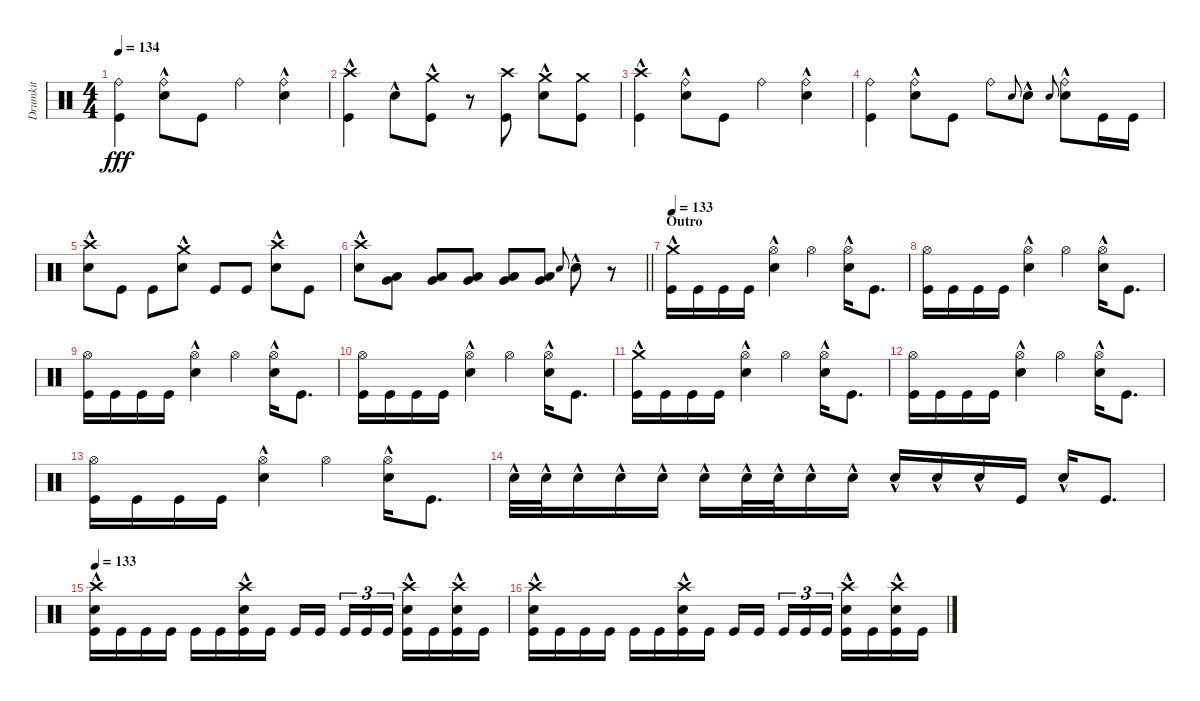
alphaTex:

\track ("Drumkit" "Drumkit") {instrument percussion}
\staff {score}
\articulation defaults
\ts (4 4)
\tempo 134
\clef neutral
\ks aminor
("Kick (hit)" "Ride (bell)").4{dy fff} ("Snare (hit) 2"{hac} "Ride (bell)").8 "Kick (hit)".8 "Ride (bell)".4 ("Snare (hit) 2"{hac} "Ride (bell)").4 |
("Kick (hit)" "Crash high (hit)"{hac}).4 "Snare (hit) 2"{hac}.8 ("Kick (hit)" "Crash medium (hit)"{hac}).8 r.8 ("Kick (hit)" "Crash high (hit)").8 ("Snare (hit) 2"{hac} "Crash medium (hit)").8 ("Kick (hit)" "Crash medium (hit)").8 |
("Kick (hit)" "Crash high (hit)"{hac}).4 ("Snare (hit) 2"{hac} "Ride (bell)").8 "Kick (hit)".8 "Ride (bell)".4 ("Snare (hit) 2"{hac} "Ride (bell)").4 |
("Kick (hit)" "Ride (bell)").4 ("Snare (hit) 2"{hac} "Ride (bell)").8 "Kick (hit)".8 "Ride (bell)".8 "Snare (hit)".8{gr onbeat} "Snare (hit) 2"{hac}.8 "Snare (hit)".8{gr onbeat} ("Snare (hit) 2"{hac} "Ride (bell)").8 "Kick (hit)".16 "Kick (hit)".16 |
("Snare (hit) 2"{hac} "Crash high (hit)"{hac}).8 "Kick (hit)".8 "Kick (hit)".8 ("Snare (hit) 2"{hac} "Crash medium (hit)"{hac}).8 "Kick (hit)".8 "Kick (hit)".8 ("Snare (hit) 2"{hac} "Crash high (hit)"{hac}).8 "Kick (hit)".8 |
\barLineRight lightlight
("Snare (hit) 2"{hac} "Crash high (hit)"{hac}).8 ("Low Tom (hit)" "Very Low Tom (hit)").8 ("Low Tom (hit)" "Very Low Tom (hit)").8 ("Low Tom (hit)" "Very Low Tom (hit)").8 ("Very Low Tom (hit)" "Low Floor Tom (hit)").8 ("Very Low Tom (hit)" "Low Floor Tom (hit)").8 "Snare (hit)".8{gr onbeat} "Snare (hit) 2"{hac}.8 r.8 |
\section ("" "Outro")
\tempo 133
("Kick (hit)" "Crash medium (hit)"{hac}).16 "Kick (hit)".16 "Kick (hit)".16 "Kick (hit)".16 ("Snare (hit) 2"{hac} "Hi-Hat (open)").4 "Hi-Hat (open)".4 ("Snare (hit) 2"{hac} "Hi-Hat (open)").16 "Kick (hit)".8{d} |
("Kick (hit)" "Hi-Hat (open)").16 "Kick (hit)".16 "Kick (hit)".16 "Kick (hit)".16 ("Snare (hit) 2"{hac} "Hi-Hat (open)").4 "Hi-Hat (open)".4 ("Snare (hit) 2"{hac} "Hi-Hat (open)").16 "Kick (hit)".8{d} |
("Kick (hit)" "Hi-Hat (open)").16 "Kick (hit)".16 "Kick (hit)".16 "Kick (hit)".16 ("Snare (hit) 2"{hac} "Hi-Hat (open)").4 "Hi-Hat (open)".4 ("Snare (hit) 2"{hac} "Hi-Hat (open)").16 "Kick (hit)".8{d} |
("Kick (hit)" "Hi-Hat (open)").16 "Kick (hit)".16 "Kick (hit)".16 "Kick (hit)".16 ("Snare (hit) 2"{hac} "Hi-Hat (open)").4 "Hi-Hat (open)".4 ("Snare (hit) 2"{hac} "Hi-Hat (open)").16 "Kick (hit)".8{d} |
("Kick (hit)" "Crash medium (hit)"{hac}).16 "Kick (hit)".16 "Kick (hit)".16 "Kick (hit)".16 ("Snare (hit) 2"{hac} "Hi-Hat (open)").4 "Hi-Hat (open)".4 ("Snare (hit) 2"{hac} "Hi-Hat (open)").16 "Kick (hit)".8{d} |
("Kick (hit)" "Hi-Hat (open)").16 "Kick (hit)".16 "Kick (hit)".16 "Kick (hit)".16 ("Snare (hit) 2"{hac} "Hi-Hat (open)").4 "Hi-Hat (open)".4 ("Snare (hit) 2"{hac} "Hi-Hat (open)").16 "Kick (hit)".8{d} |
("Kick (hit)" "Hi-Hat (open)").16 "Kick (hit)".16 "Kick (hit)".16 "Kick (hit)".16 ("Snare (hit) 2"{hac} "Hi-Hat (open)").4 "Hi-Hat (open)".4 ("Snare (hit) 2"{hac} "Hi-Hat (open)").16 "Kick (hit)".8{d} |
"Snare (hit) 2"{hac}.32 "Snare (hit) 2"{hac}.32 "Snare (hit) 2"{hac}.16 "Snare (hit) 2"{hac}.16 "Snare (hit) 2"{hac}.16 "Snare (hit) 2"{hac}.16 "Snare (hit) 2"{hac}.32 "Snare (hit) 2"{hac}.32 "Snare (hit) 2"{hac}.16 "Snare (hit) 2"{hac}.16 "Snare (hit) 2"{hac}.16 "Snare (hit) 2"{hac}.16 "Snare (hit) 2"{hac}.16 "Kick (hit)".16 "Snare (hit) 2"{hac}.16 "Kick (hit)".8{d} |
\tempo 133
("Kick (hit)" "Snare (hit) 2"{hac} "Crash high (hit)"{hac}).16 "Kick (hit)".16 "Kick (hit)".16 "Kick (hit)".16 "Kick (hit)".16 "Kick (hit)".16 ("Kick (hit)" "Snare (hit) 2"{hac} "Crash high (hit)").16 "Kick (hit)".16 "Kick (hit)".16 "Kick (hit)".16{beam splitsecondary} "Kick (hit)".16{tu (3 2)} "Kick (hit)".16{tu (3 2)} "Kick (hit)".16{tu (3 2)} ("Kick (hit)" "Snare (hit) 2"{hac} "Crash high (hit)").16 "Kick (hit)".16 ("Kick (hit)" "Snare (hit) 2"{hac} "Crash high (hit)").16 "Kick (hit)".16 |
("Kick (hit)" "Snare (hit) 2"{hac} "Crash high (hit)").16 "Kick (hit)".16 "Kick (hit)".16 "Kick (hit)".16 "Kick (hit)".16 "Kick (hit)".16 ("Kick (hit)" "Snare (hit) 2"{hac} "Crash high (hit)").16 "Kick (hit)".16 "Kick (hit)".16 "Kick (hit)".16{beam splitsecondary} "Kick (hit)".16{tu (3 2)} "Kick (hit)".16{tu (3 2)} "Kick (hit)".16{tu (3 2)} ("Kick (hit)" "Snare (hit) 2"{hac} "Crash high (hit)").16 "Kick (hit)".16 ("Kick (hit)" "Snare (hit) 2"{hac} "Crash high (hit)").16 "Kick (hit)".16
